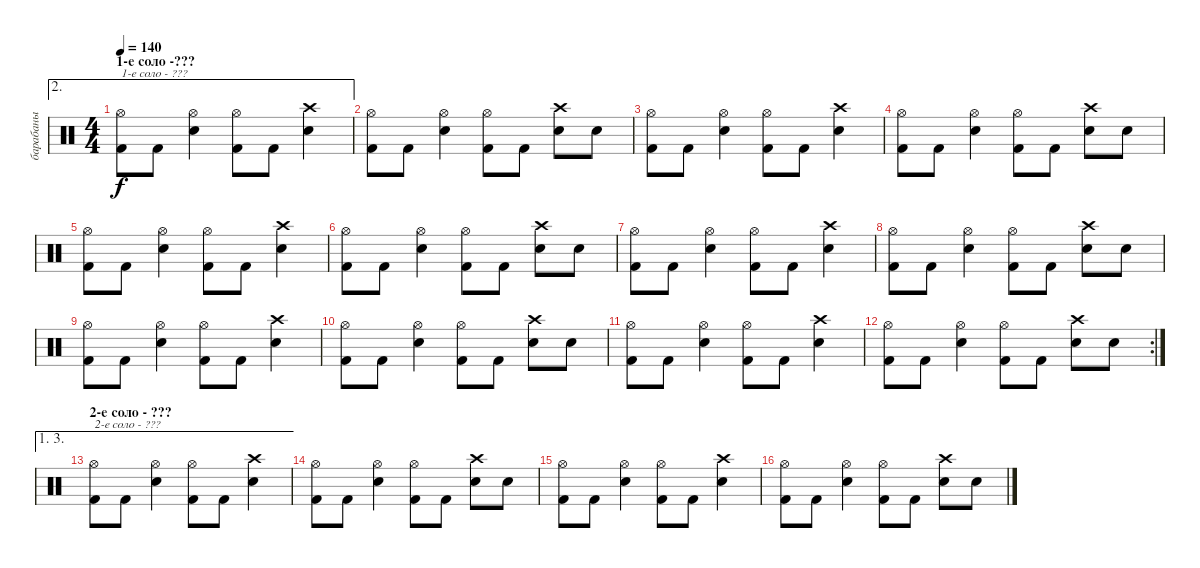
\track ("барабаны" "барабаны") {instrument percussion}
\staff {score}
\articulation defaults
\ae 2
\ts (4 4)
\section ("" "1-е соло -???")
\tempo 140
\clef neutral
\ks c
("Hi-Hat (open)" "Kick (hit) 2").8{txt "1-е соло - ???" dy f} "Kick (hit) 2".8 ("Hi-Hat (open)" "Snare (hit) 2").4 ("Hi-Hat (open)" "Kick (hit) 2").8 "Kick (hit) 2".8 ("Crash high (hit)" "Snare (hit) 2").4 |
("Hi-Hat (open)" "Kick (hit) 2").8 "Kick (hit) 2".8 ("Hi-Hat (open)" "Snare (hit) 2").4 ("Hi-Hat (open)" "Kick (hit) 2").8 "Kick (hit) 2".8 ("Crash high (hit)" "Snare (hit) 2").8 "Snare (hit) 2".8 |
("Hi-Hat (open)" "Kick (hit) 2").8 "Kick (hit) 2".8 ("Hi-Hat (open)" "Snare (hit) 2").4 ("Hi-Hat (open)" "Kick (hit) 2").8 "Kick (hit) 2".8 ("Crash high (hit)" "Snare (hit) 2").4 |
("Hi-Hat (open)" "Kick (hit) 2").8 "Kick (hit) 2".8 ("Hi-Hat (open)" "Snare (hit) 2").4 ("Hi-Hat (open)" "Kick (hit) 2").8 "Kick (hit) 2".8 ("Crash high (hit)" "Snare (hit) 2").8 "Snare (hit) 2".8 |
("Hi-Hat (open)" "Kick (hit) 2").8 "Kick (hit) 2".8 ("Hi-Hat (open)" "Snare (hit) 2").4 ("Hi-Hat (open)" "Kick (hit) 2").8 "Kick (hit) 2".8 ("Crash high (hit)" "Snare (hit) 2").4 |
("Hi-Hat (open)" "Kick (hit) 2").8 "Kick (hit) 2".8 ("Hi-Hat (open)" "Snare (hit) 2").4 ("Hi-Hat (open)" "Kick (hit) 2").8 "Kick (hit) 2".8 ("Crash high (hit)" "Snare (hit) 2").8 "Snare (hit) 2".8 |
("Hi-Hat (open)" "Kick (hit) 2").8 "Kick (hit) 2".8 ("Hi-Hat (open)" "Snare (hit) 2").4 ("Hi-Hat (open)" "Kick (hit) 2").8 "Kick (hit) 2".8 ("Crash high (hit)" "Snare (hit) 2").4 |
("Hi-Hat (open)" "Kick (hit) 2").8 "Kick (hit) 2".8 ("Hi-Hat (open)" "Snare (hit) 2").4 ("Hi-Hat (open)" "Kick (hit) 2").8 "Kick (hit) 2".8 ("Crash high (hit)" "Snare (hit) 2").8 "Snare (hit) 2".8 |
("Hi-Hat (open)" "Kick (hit) 2").8 "Kick (hit) 2".8 ("Hi-Hat (open)" "Snare (hit) 2").4 ("Hi-Hat (open)" "Kick (hit) 2").8 "Kick (hit) 2".8 ("Crash high (hit)" "Snare (hit) 2").4 |
("Hi-Hat (open)" "Kick (hit) 2").8 "Kick (hit) 2".8 ("Hi-Hat (open)" "Snare (hit) 2").4 ("Hi-Hat (open)" "Kick (hit) 2").8 "Kick (hit) 2".8 ("Crash high (hit)" "Snare (hit) 2").8 "Snare (hit) 2".8 |
("Hi-Hat (open)" "Kick (hit) 2").8 "Kick (hit) 2".8 ("Hi-Hat (open)" "Snare (hit) 2").4 ("Hi-Hat (open)" "Kick (hit) 2").8 "Kick (hit) 2".8 ("Crash high (hit)" "Snare (hit) 2").4 |
\rc 2
("Hi-Hat (open)" "Kick (hit) 2").8 "Kick (hit) 2".8 ("Hi-Hat (open)" "Snare (hit) 2").4 ("Hi-Hat (open)" "Kick (hit) 2").8 "Kick (hit) 2".8 ("Crash high (hit)" "Snare (hit) 2").8 "Snare (hit) 2".8 |
\ae (1 3)
\section ("" "2-е соло - ???")
("Hi-Hat (open)" "Kick (hit) 2").8{txt "2-е соло - ???"} "Kick (hit) 2".8 ("Hi-Hat (open)" "Snare (hit) 2").4 ("Hi-Hat (open)" "Kick (hit) 2").8 "Kick (hit) 2".8 ("Crash high (hit)" "Snare (hit) 2").4 |
("Hi-Hat (open)" "Kick (hit) 2").8 "Kick (hit) 2".8 ("Hi-Hat (open)" "Snare (hit) 2").4 ("Hi-Hat (open)" "Kick (hit) 2").8 "Kick (hit) 2".8 ("Crash high (hit)" "Snare (hit) 2").8 "Snare (hit) 2".8 |
("Hi-Hat (open)" "Kick (hit) 2").8 "Kick (hit) 2".8 ("Hi-Hat (open)" "Snare (hit) 2").4 ("Hi-Hat (open)" "Kick (hit) 2").8 "Kick (hit) 2".8 ("Crash high (hit)" "Snare (hit) 2").4 |
("Hi-Hat (open)" "Kick (hit) 2").8 "Kick (hit) 2".8 ("Hi-Hat (open)" "Snare (hit) 2").4 ("Hi-Hat (open)" "Kick (hit) 2").8 "Kick (hit) 2".8 ("Crash high (hit)" "Snare (hit) 2").8 "Snare (hit) 2".8
